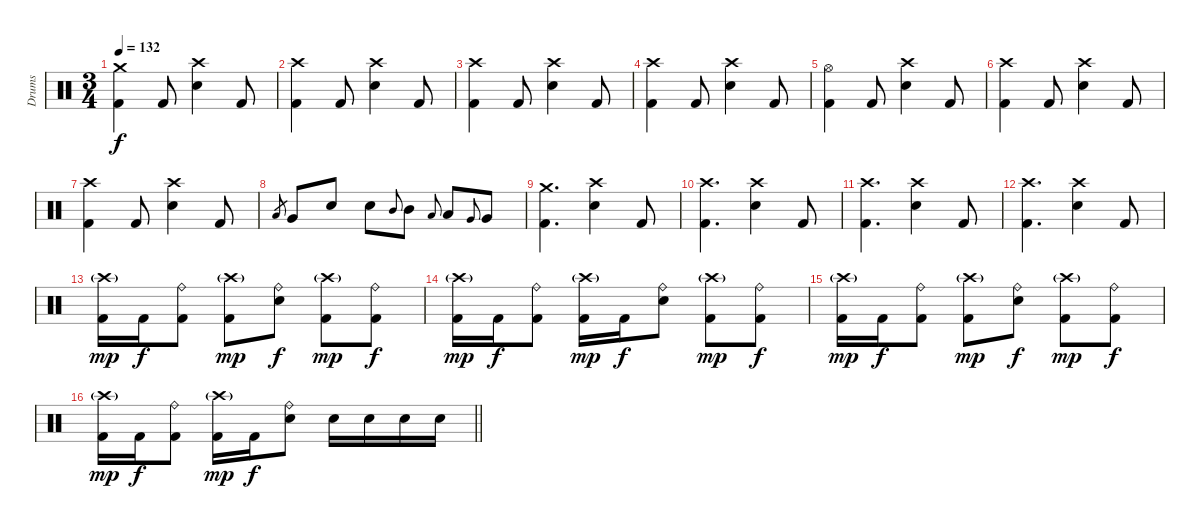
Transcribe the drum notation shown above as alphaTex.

\track ("Drums" "Drums") {instrument percussion}
\staff {score}
\articulation defaults
\ts (3 4)
\tempo 132
\clef neutral
\ks c
("Crash medium (hit)" "Kick (hit) 2").4{dy f} "Kick (hit) 2".8 ("Crash high (hit)" "Snare (hit) 2").4 "Kick (hit) 2".8 |
("Crash high (hit)" "Kick (hit) 2").4 "Kick (hit) 2".8 ("Crash high (hit)" "Snare (hit) 2").4 "Kick (hit) 2".8 |
("Crash high (hit)" "Kick (hit) 2").4 "Kick (hit) 2".8 ("Crash high (hit)" "Snare (hit) 2").4 "Kick (hit) 2".8 |
("Crash high (hit)" "Kick (hit) 2").4 "Kick (hit) 2".8 ("Crash high (hit)" "Snare (hit) 2").4 "Kick (hit) 2".8 |
("Hi-Hat (open)" "Kick (hit) 2").4 "Kick (hit) 2".8 ("Crash high (hit)" "Snare (hit) 2").4 "Kick (hit) 2".8 |
("Crash high (hit)" "Kick (hit) 2").4 "Kick (hit) 2".8 ("Crash high (hit)" "Snare (hit) 2").4 "Kick (hit) 2".8 |
("Crash high (hit)" "Kick (hit) 2").4 "Kick (hit) 2".8 ("Crash high (hit)" "Snare (hit) 2").4 "Kick (hit) 2".8 |
"Low Floor Tom (hit)".8{gr} "Very Low Tom (hit)".8 "Snare (hit) 2".8 "Snare (hit) 2".8 "Mid Tom (hit)".8{gr onbeat} "Mid Tom (hit)".8 "Low Tom (hit)".8{gr onbeat} "Low Tom (hit)".8 "Very Low Tom (hit)".8{gr onbeat} "Very Low Tom (hit)".8 |
("Crash medium (hit)" "Kick (hit) 2").4{d} ("Crash high (hit)" "Snare (hit) 2").4 "Kick (hit) 2".8 |
("Crash high (hit)" "Kick (hit) 2").4{d} ("Crash high (hit)" "Snare (hit) 2").4 "Kick (hit) 2".8 |
("Crash high (hit)" "Kick (hit) 2").4{d} ("Crash high (hit)" "Snare (hit) 2").4 "Kick (hit) 2".8 |
("Crash high (hit)" "Kick (hit) 2").4{d} ("Crash high (hit)" "Snare (hit) 2").4 "Kick (hit) 2".8 |
("Crash high (hit)"{g} "Kick (hit) 2").16{dy mp} "Kick (hit) 2".16{dy f} ("Ride (bell)" "Kick (hit) 2").8 ("Crash high (hit)"{g} "Kick (hit) 2").8{dy mp} ("Ride (bell)" "Snare (hit) 2").8{dy f} ("Crash high (hit)"{g} "Kick (hit) 2").8{dy mp} ("Ride (bell)" "Kick (hit) 2").8{dy f} |
("Crash high (hit)"{g} "Kick (hit) 2").16{dy mp} "Kick (hit) 2".16{dy f} ("Ride (bell)" "Kick (hit) 2").8 ("Crash high (hit)"{g} "Kick (hit) 2").16{dy mp} "Kick (hit) 2".16{dy f} ("Ride (bell)" "Snare (hit) 2").8 ("Crash high (hit)"{g} "Kick (hit) 2").8{dy mp} ("Ride (bell)" "Kick (hit) 2").8{dy f} |
("Crash high (hit)"{g} "Kick (hit) 2").16{dy mp} "Kick (hit) 2".16{dy f} ("Ride (bell)" "Kick (hit) 2").8 ("Crash high (hit)"{g} "Kick (hit) 2").8{dy mp} ("Ride (bell)" "Snare (hit) 2").8{dy f} ("Crash high (hit)"{g} "Kick (hit) 2").8{dy mp} ("Ride (bell)" "Kick (hit) 2").8{dy f} |
\barLineRight lightlight
("Crash high (hit)"{g} "Kick (hit) 2").16{dy mp} "Kick (hit) 2".16{dy f} ("Ride (bell)" "Kick (hit) 2").8 ("Crash high (hit)"{g} "Kick (hit) 2").16{dy mp} "Kick (hit) 2".16{dy f} ("Ride (bell)" "Snare (hit) 2").8 "Snare (hit) 2".16 "Snare (hit) 2".16 "Snare (hit) 2".16 "Snare (hit) 2".16
